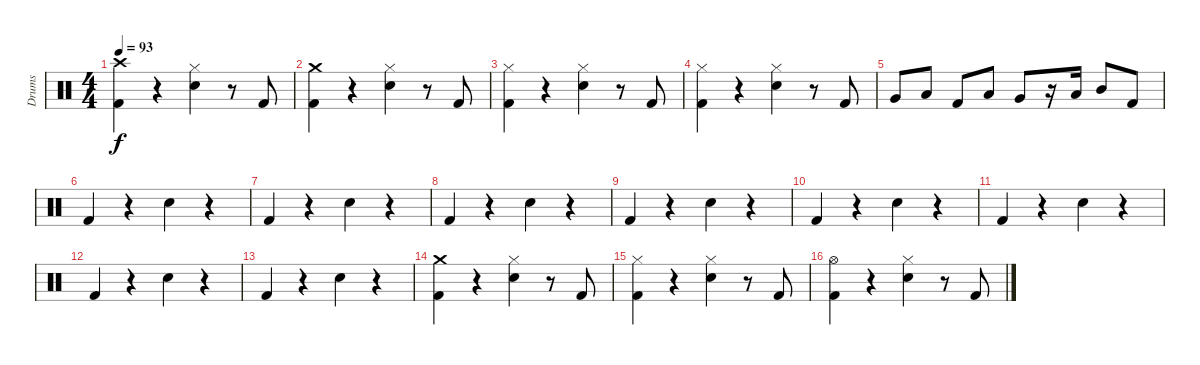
\track ("Drums" "Drums") {instrument percussion}
\staff {score}
\articulation defaults
\ts (4 4)
\tempo 93
\clef neutral
\ks c
("Crash high (hit)" "Kick (hit) 2").4{dy f} r.4 ("Hi-Hat (closed)" "Snare (hit) 2").4 r.8 "Kick (hit) 2".8 |
("Crash medium (hit)" "Kick (hit) 2").4 r.4 ("Hi-Hat (closed)" "Snare (hit) 2").4 r.8 "Kick (hit) 2".8 |
("Hi-Hat (closed)" "Kick (hit) 2").4 r.4 ("Hi-Hat (closed)" "Snare (hit) 2").4 r.8 "Kick (hit) 2".8 |
("Hi-Hat (closed)" "Kick (hit) 2").4 r.4 ("Hi-Hat (closed)" "Snare (hit) 2").4 r.8 "Kick (hit) 2".8 |
"Very Low Tom (hit)".8 "Low Tom (hit)".8 "Kick (hit) 2".8 "Low Tom (hit)".8 "Very Low Tom (hit)".8 r.16 "Low Tom (hit)".16 "Mid Tom (hit)".8 "Kick (hit) 2".8 |
"Kick (hit) 2".4 r.4 "Snare (hit) 2".4 r.4 |
"Kick (hit) 2".4 r.4 "Snare (hit) 2".4 r.4 |
"Kick (hit) 2".4 r.4 "Snare (hit) 2".4 r.4 |
"Kick (hit) 2".4 r.4 "Snare (hit) 2".4 r.4 |
"Kick (hit) 2".4 r.4 "Snare (hit) 2".4 r.4 |
"Kick (hit) 2".4 r.4 "Snare (hit) 2".4 r.4 |
"Kick (hit) 2".4 r.4 "Snare (hit) 2".4 r.4 |
"Kick (hit) 2".4 r.4 "Snare (hit) 2".4 r.4 |
("Crash medium (hit)" "Kick (hit) 2").4 r.4 ("Hi-Hat (closed)" "Snare (hit) 2").4 r.8 "Kick (hit) 2".8 |
("Hi-Hat (closed)" "Kick (hit) 2").4 r.4 ("Hi-Hat (closed)" "Snare (hit) 2").4 r.8 "Kick (hit) 2".8 |
("Hi-Hat (open)" "Kick (hit) 2").4 r.4 ("Hi-Hat (closed)" "Snare (hit) 2").4 r.8 "Kick (hit) 2".8
